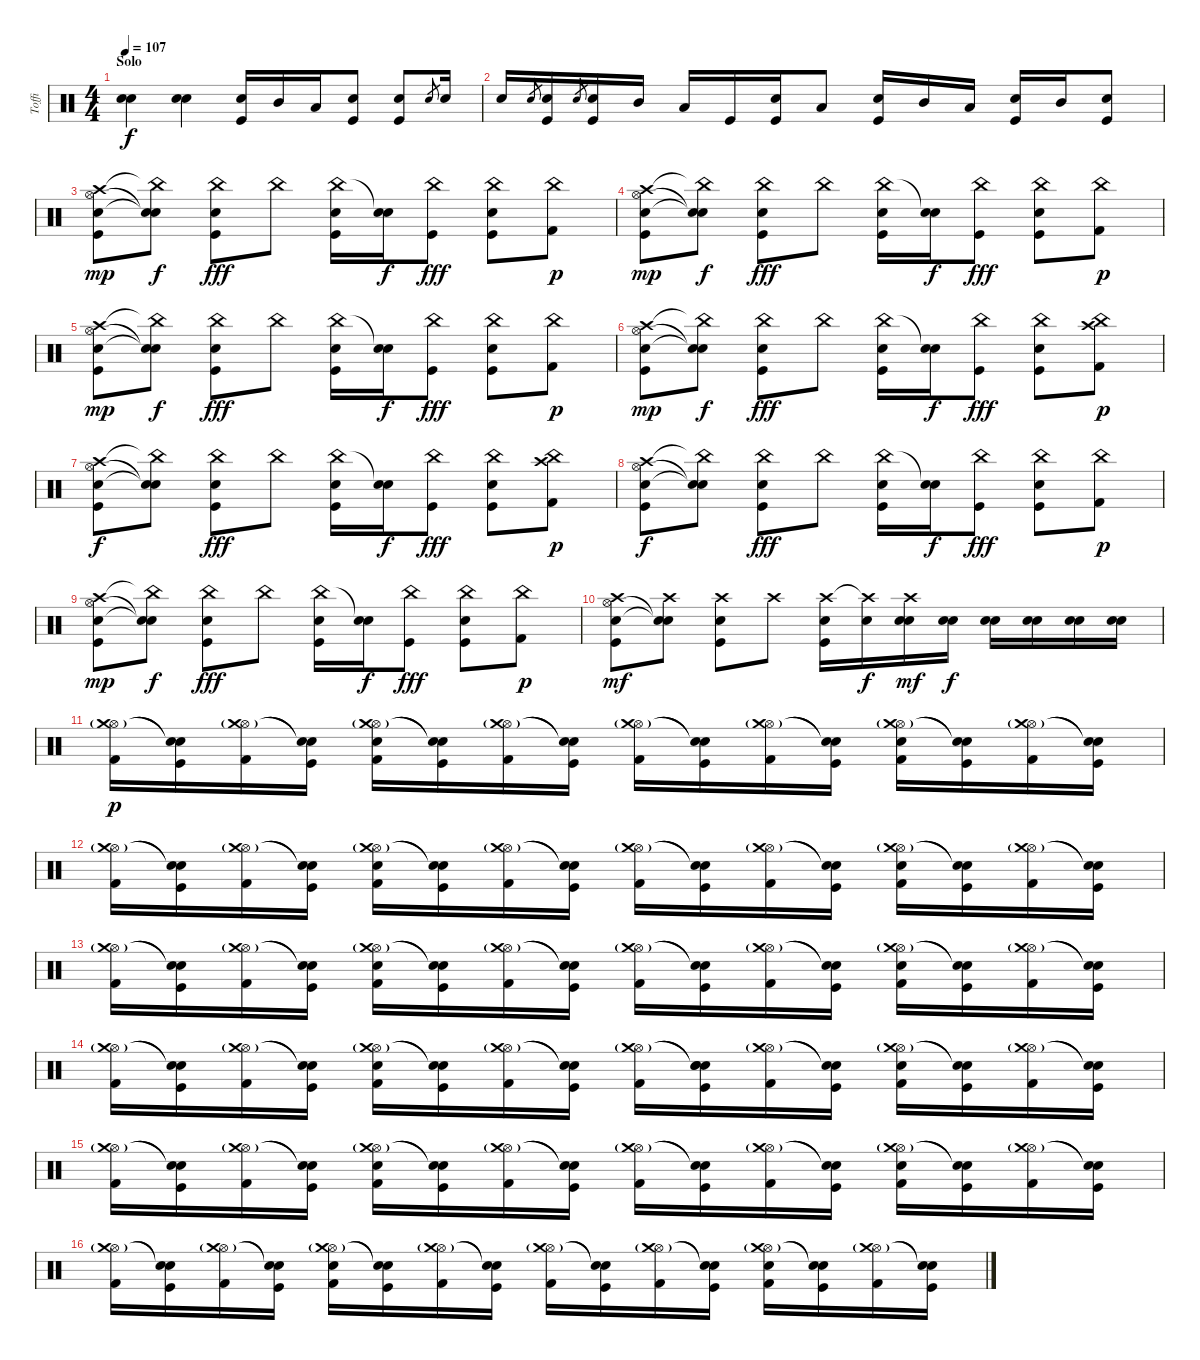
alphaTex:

\track ("Toffi" "Toffi") {instrument percussion}
\staff {score}
\articulation defaults
\ts (4 4)
\section ("" "Solo")
\tempo 107
\clef neutral
\ks c
("Snare (hit) 2" "Electric Snare (hit)").4{dy f} ("Snare (hit) 2" "Electric Snare (hit)").4 ("Snare (hit) 2" "Kick (hit)").16 "Mid Tom (hit)".16 "Low Tom (hit)".16 ("Snare (hit) 2" "Kick (hit)").8 ("Snare (hit) 2" "Kick (hit)").8 "Snare (hit) 2".8{gr} "Snare (hit) 2".16 |
"Snare (hit) 2".16 "Snare (hit) 2".8{gr} ("Snare (hit) 2" "Kick (hit)").16 "Snare (hit) 2".8{gr} ("Snare (hit) 2" "Kick (hit)").16 "Mid Tom (hit)".16 "Low Tom (hit)".16 "Kick (hit)".16 ("Snare (hit) 2" "Kick (hit)").16 "Low Tom (hit)".8 ("Snare (hit) 2" "Kick (hit)").16 "Mid Tom (hit)".16 "Low Tom (hit)".16 ("Snare (hit) 2" "Kick (hit)").16 "Mid Tom (hit)".16 ("Snare (hit) 2" "Kick (hit)").8 |
("Crash high (hit)" "Hi-Hat (open)" "Electric Snare (hit)" "Kick (hit)").8{dy mp volume 13} ("China (hit)"{t} "Snare (hit)"{t} "Snare (hit)"{t}).8{dy f} ("China (hit)" "Snare (hit) 2" "Kick (hit)").8{dy fff} "China (hit)".8 ("China (hit)" "Snare (hit) 2" "Kick (hit)").16 ("Snare (hit)"{t} "Electric Snare (hit)").16{dy f} ("China (hit)" "Kick (hit)").8{dy fff} ("China (hit)" "Snare (hit) 2" "Kick (hit)").8 ("China (hit)" "Kick (hit) 2").8{dy p} |
("Crash high (hit)" "Hi-Hat (open)" "Electric Snare (hit)" "Kick (hit)").8{dy mp} ("China (hit)"{t} "Snare (hit)"{t} "Snare (hit)"{t}).8{dy f} ("China (hit)" "Snare (hit) 2" "Kick (hit)").8{dy fff} "China (hit)".8 ("China (hit)" "Snare (hit) 2" "Kick (hit)").16 ("Snare (hit)"{t} "Electric Snare (hit)").16{dy f} ("China (hit)" "Kick (hit)").8{dy fff} ("China (hit)" "Snare (hit) 2" "Kick (hit)").8 ("China (hit)" "Kick (hit) 2").8{dy p} |
("Crash high (hit)" "Hi-Hat (open)" "Electric Snare (hit)" "Kick (hit)").8{dy mp} ("China (hit)"{t} "Snare (hit)"{t} "Snare (hit)"{t}).8{dy f} ("China (hit)" "Snare (hit) 2" "Kick (hit)").8{dy fff} "China (hit)".8 ("China (hit)" "Snare (hit) 2" "Kick (hit)").16 ("Snare (hit)"{t} "Electric Snare (hit)").16{dy f} ("China (hit)" "Kick (hit)").8{dy fff} ("China (hit)" "Snare (hit) 2" "Kick (hit)").8 ("China (hit)" "Kick (hit) 2").8{dy p} |
("Crash high (hit)" "Hi-Hat (open)" "Electric Snare (hit)" "Kick (hit)").8{dy mp} ("China (hit)"{t} "Snare (hit)"{t} "Snare (hit)"{t}).8{dy f} ("China (hit)" "Snare (hit) 2" "Kick (hit)").8{dy fff} "China (hit)".8 ("China (hit)" "Snare (hit) 2" "Kick (hit)").16 ("Snare (hit)"{t} "Electric Snare (hit)").16{dy f} ("China (hit)" "Kick (hit)").8{dy fff} ("China (hit)" "Snare (hit) 2" "Kick (hit)").8 ("China (hit)" "Crash high (hit)" "Kick (hit) 2").8{dy p} |
("Crash high (hit)" "Hi-Hat (open)" "Electric Snare (hit)" "Kick (hit)").8{dy f volume 13} ("China (hit)"{t} "Snare (hit)"{t} "Snare (hit)"{t}).8 ("China (hit)" "Snare (hit) 2" "Kick (hit)").8{dy fff} "China (hit)".8 ("China (hit)" "Snare (hit) 2" "Kick (hit)").16 ("Snare (hit)"{t} "Electric Snare (hit)").16{dy f} ("China (hit)" "Kick (hit)").8{dy fff} ("China (hit)" "Snare (hit) 2" "Kick (hit)").8 ("China (hit)" "Crash high (hit)" "Kick (hit) 2").8{dy p} |
("Crash high (hit)" "Hi-Hat (open)" "Electric Snare (hit)" "Kick (hit)").8{dy f} ("China (hit)"{t} "Snare (hit)"{t} "Snare (hit)"{t}).8 ("China (hit)" "Snare (hit) 2" "Kick (hit)").8{dy fff} "China (hit)".8 ("China (hit)" "Snare (hit) 2" "Kick (hit)").16 ("Snare (hit)"{t} "Electric Snare (hit)").16{dy f} ("China (hit)" "Kick (hit)").8{dy fff} ("China (hit)" "Snare (hit) 2" "Kick (hit)").8 ("China (hit)" "Kick (hit) 2").8{dy p} |
("Crash high (hit)" "Hi-Hat (open)" "Electric Snare (hit)" "Kick (hit)").8{dy mp} ("China (hit)"{t} "Snare (hit)"{t} "Snare (hit)"{t}).8{dy f} ("China (hit)" "Snare (hit) 2" "Kick (hit)").8{dy fff} "China (hit)".8 ("China (hit)" "Snare (hit) 2" "Kick (hit)").16 ("Snare (hit)"{t} "Electric Snare (hit)").16{dy f} ("China (hit)" "Kick (hit)").8{dy fff} ("China (hit)" "Snare (hit) 2" "Kick (hit)").8 ("China (hit)" "Kick (hit) 2").8{dy p} |
("Crash high (hit)" "Hi-Hat (open)" "Electric Snare (hit)" "Kick (hit)").8{dy mf} ("Crash high (hit)" "Snare (hit)"{t} "Snare (hit)"{t}).8 ("Crash high (hit)" "Snare (hit) 2" "Kick (hit)").8 "Crash high (hit)".8 ("Crash high (hit)" "Snare (hit) 2" "Kick (hit)").16 ("Crash high (hit)"{t} "Electric Snare (hit)").16{dy f} ("Crash high (hit)" "Snare (hit) 2" "Snare (hit) 2").16{dy mf} ("Snare (hit) 2" "Snare (hit) 2").16{dy f} ("Snare (hit) 2" "Snare (hit) 2").16 ("Electric Snare (hit)" "Snare (hit) 2").16 ("Electric Snare (hit)" "Snare (hit) 2").16 ("Snare (hit) 2" "Snare (hit) 2").16 |
("Hi-Hat (open)" "Crash medium (hit)"{g} "Kick (hit) 2").16{dy p volume 16} ("Snare (hit)"{t} "Snare (hit)"{t} "Kick (hit)").16 ("Hi-Hat (open)" "Crash medium (hit)"{g} "Kick (hit) 2").16 ("Snare (hit)"{t} "Snare (hit)"{t} "Kick (hit)").16 ("Hi-Hat (open)" "Crash medium (hit)"{g} "Snare (hit) 2" "Kick (hit) 2").16 ("Snare (hit)"{t} "Snare (hit)"{t} "Kick (hit)").16 ("Hi-Hat (open)" "Crash medium (hit)"{g} "Kick (hit) 2").16 ("Snare (hit)"{t} "Snare (hit)"{t} "Kick (hit)").16 ("Hi-Hat (open)" "Crash medium (hit)"{g} "Kick (hit) 2").16 ("Snare (hit)"{t} "Snare (hit)"{t} "Kick (hit)").16 ("Hi-Hat (open)" "Crash medium (hit)"{g} "Kick (hit) 2").16 ("Snare (hit)"{t} "Snare (hit)"{t} "Kick (hit)").16 ("Hi-Hat (open)" "Crash medium (hit)"{g} "Snare (hit) 2" "Kick (hit) 2").16 ("Snare (hit)"{t} "Snare (hit)"{t} "Kick (hit)").16 ("Hi-Hat (open)" "Crash medium (hit)"{g} "Kick (hit) 2").16 ("Snare (hit)"{t} "Snare (hit)"{t} "Kick (hit)").16 |
("Hi-Hat (open)" "Crash medium (hit)"{g} "Kick (hit) 2").16 ("Snare (hit)"{t} "Snare (hit)"{t} "Kick (hit)").16 ("Hi-Hat (open)" "Crash medium (hit)"{g} "Kick (hit) 2").16 ("Snare (hit)"{t} "Snare (hit)"{t} "Kick (hit)").16 ("Hi-Hat (open)" "Crash medium (hit)"{g} "Snare (hit) 2" "Kick (hit) 2").16 ("Snare (hit)"{t} "Snare (hit)"{t} "Kick (hit)").16 ("Hi-Hat (open)" "Crash medium (hit)"{g} "Kick (hit) 2").16 ("Snare (hit)"{t} "Snare (hit)"{t} "Kick (hit)").16 ("Hi-Hat (open)" "Crash medium (hit)"{g} "Kick (hit) 2").16 ("Snare (hit)"{t} "Snare (hit)"{t} "Kick (hit)").16 ("Hi-Hat (open)" "Crash medium (hit)"{g} "Kick (hit) 2").16 ("Snare (hit)"{t} "Snare (hit)"{t} "Kick (hit)").16 ("Hi-Hat (open)" "Crash medium (hit)"{g} "Snare (hit) 2" "Kick (hit) 2").16 ("Snare (hit)"{t} "Snare (hit)"{t} "Kick (hit)").16 ("Hi-Hat (open)" "Crash medium (hit)"{g} "Kick (hit) 2").16 ("Snare (hit)"{t} "Snare (hit)"{t} "Kick (hit)").16 |
("Hi-Hat (open)" "Crash medium (hit)"{g} "Kick (hit) 2").16 ("Snare (hit)"{t} "Snare (hit)"{t} "Kick (hit)").16 ("Hi-Hat (open)" "Crash medium (hit)"{g} "Kick (hit) 2").16 ("Snare (hit)"{t} "Snare (hit)"{t} "Kick (hit)").16 ("Hi-Hat (open)" "Crash medium (hit)"{g} "Snare (hit) 2" "Kick (hit) 2").16 ("Snare (hit)"{t} "Snare (hit)"{t} "Kick (hit)").16 ("Hi-Hat (open)" "Crash medium (hit)"{g} "Kick (hit) 2").16 ("Snare (hit)"{t} "Snare (hit)"{t} "Kick (hit)").16 ("Hi-Hat (open)" "Crash medium (hit)"{g} "Kick (hit) 2").16 ("Snare (hit)"{t} "Snare (hit)"{t} "Kick (hit)").16 ("Hi-Hat (open)" "Crash medium (hit)"{g} "Kick (hit) 2").16 ("Snare (hit)"{t} "Snare (hit)"{t} "Kick (hit)").16 ("Hi-Hat (open)" "Crash medium (hit)"{g} "Snare (hit) 2" "Kick (hit) 2").16 ("Snare (hit)"{t} "Snare (hit)"{t} "Kick (hit)").16 ("Hi-Hat (open)" "Crash medium (hit)"{g} "Kick (hit) 2").16 ("Snare (hit)"{t} "Snare (hit)"{t} "Kick (hit)").16 |
("Hi-Hat (open)" "Crash medium (hit)"{g} "Kick (hit) 2").16 ("Snare (hit)"{t} "Snare (hit)"{t} "Kick (hit)").16 ("Hi-Hat (open)" "Crash medium (hit)"{g} "Kick (hit) 2").16 ("Snare (hit)"{t} "Snare (hit)"{t} "Kick (hit)").16 ("Hi-Hat (open)" "Crash medium (hit)"{g} "Snare (hit) 2" "Kick (hit) 2").16 ("Snare (hit)"{t} "Snare (hit)"{t} "Kick (hit)").16 ("Hi-Hat (open)" "Crash medium (hit)"{g} "Kick (hit) 2").16 ("Snare (hit)"{t} "Snare (hit)"{t} "Kick (hit)").16 ("Hi-Hat (open)" "Crash medium (hit)"{g} "Kick (hit) 2").16 ("Snare (hit)"{t} "Snare (hit)"{t} "Snare (hit) 2" "Kick (hit)").16 ("Hi-Hat (open)" "Crash medium (hit)"{g} "Kick (hit) 2").16 ("Snare (hit)"{t} "Snare (hit)"{t} "Kick (hit)").16 ("Hi-Hat (open)" "Crash medium (hit)"{g} "Snare (hit) 2" "Kick (hit) 2").16 ("Snare (hit)"{t} "Snare (hit)"{t} "Kick (hit)").16 ("Hi-Hat (open)" "Crash medium (hit)"{g} "Kick (hit) 2").16 ("Snare (hit)"{t} "Snare (hit)"{t} "Kick (hit)").16 |
("Hi-Hat (open)" "Crash medium (hit)"{g} "Kick (hit) 2").16 ("Snare (hit)"{t} "Snare (hit)"{t} "Kick (hit)").16 ("Hi-Hat (open)" "Crash medium (hit)"{g} "Kick (hit) 2").16 ("Snare (hit)"{t} "Snare (hit)"{t} "Kick (hit)").16 ("Hi-Hat (open)" "Crash medium (hit)"{g} "Snare (hit) 2" "Kick (hit) 2").16 ("Snare (hit)"{t} "Snare (hit)"{t} "Kick (hit)").16 ("Hi-Hat (open)" "Crash medium (hit)"{g} "Kick (hit) 2").16 ("Snare (hit)"{t} "Snare (hit)"{t} "Kick (hit)").16 ("Hi-Hat (open)" "Crash medium (hit)"{g} "Kick (hit) 2").16 ("Snare (hit)"{t} "Snare (hit)"{t} "Kick (hit)").16 ("Hi-Hat (open)" "Crash medium (hit)"{g} "Kick (hit) 2").16 ("Snare (hit)"{t} "Snare (hit)"{t} "Kick (hit)").16 ("Hi-Hat (open)" "Crash medium (hit)"{g} "Snare (hit) 2" "Kick (hit) 2").16 ("Snare (hit)"{t} "Snare (hit)"{t} "Kick (hit)").16 ("Hi-Hat (open)" "Crash medium (hit)"{g} "Kick (hit) 2").16 ("Snare (hit)"{t} "Snare (hit)"{t} "Kick (hit)").16 |
("Hi-Hat (open)" "Crash medium (hit)"{g} "Kick (hit) 2").16 ("Snare (hit)"{t} "Snare (hit)"{t} "Kick (hit)").16 ("Hi-Hat (open)" "Crash medium (hit)"{g} "Kick (hit) 2").16 ("Snare (hit)"{t} "Snare (hit)"{t} "Kick (hit)").16 ("Hi-Hat (open)" "Crash medium (hit)"{g} "Snare (hit) 2" "Kick (hit) 2").16 ("Snare (hit)"{t} "Snare (hit)"{t} "Kick (hit)").16 ("Hi-Hat (open)" "Crash medium (hit)"{g} "Kick (hit) 2").16 ("Snare (hit)"{t} "Snare (hit)"{t} "Kick (hit)").16 ("Hi-Hat (open)" "Crash medium (hit)"{g} "Kick (hit) 2").16 ("Snare (hit)"{t} "Snare (hit)"{t} "Kick (hit)").16 ("Hi-Hat (open)" "Crash medium (hit)"{g} "Kick (hit) 2").16 ("Snare (hit)"{t} "Snare (hit)"{t} "Kick (hit)").16 ("Hi-Hat (open)" "Crash medium (hit)"{g} "Snare (hit) 2" "Kick (hit) 2").16 ("Snare (hit)"{t} "Snare (hit)"{t} "Kick (hit)").16 ("Hi-Hat (open)" "Crash medium (hit)"{g} "Kick (hit) 2").16 ("Snare (hit)"{t} "Snare (hit)"{t} "Kick (hit)").16
